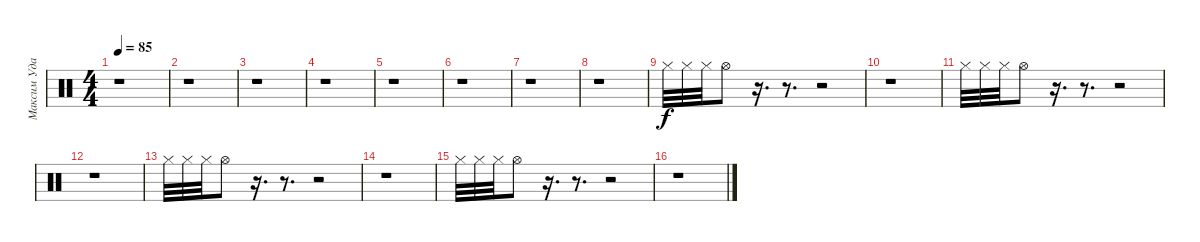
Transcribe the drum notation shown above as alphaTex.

\track ("Максим Удалов" "Максим Уда") {instrument percussion}
\staff {score}
\articulation defaults
\ts (4 4)
\tempo 85
\clef neutral
\ks c
r.1{dy f} |
r.1 |
r.1 |
r.1 |
r.1 |
r.1 |
r.1 |
r.1 |
"Hi-Hat (closed)".32 "Hi-Hat (closed)".32 "Hi-Hat (closed)".32 "Hi-Hat (open)".8 r.16{d} r.8{d} r.2 |
r.1 |
"Hi-Hat (closed)".32 "Hi-Hat (closed)".32 "Hi-Hat (closed)".32 "Hi-Hat (open)".8 r.16{d} r.8{d} r.2 |
r.1 |
"Hi-Hat (closed)".32 "Hi-Hat (closed)".32 "Hi-Hat (closed)".32 "Hi-Hat (open)".8 r.16{d} r.8{d} r.2 |
r.1 |
"Hi-Hat (closed)".32 "Hi-Hat (closed)".32 "Hi-Hat (closed)".32 "Hi-Hat (open)".8 r.16{d} r.8{d} r.2 |
r.1
